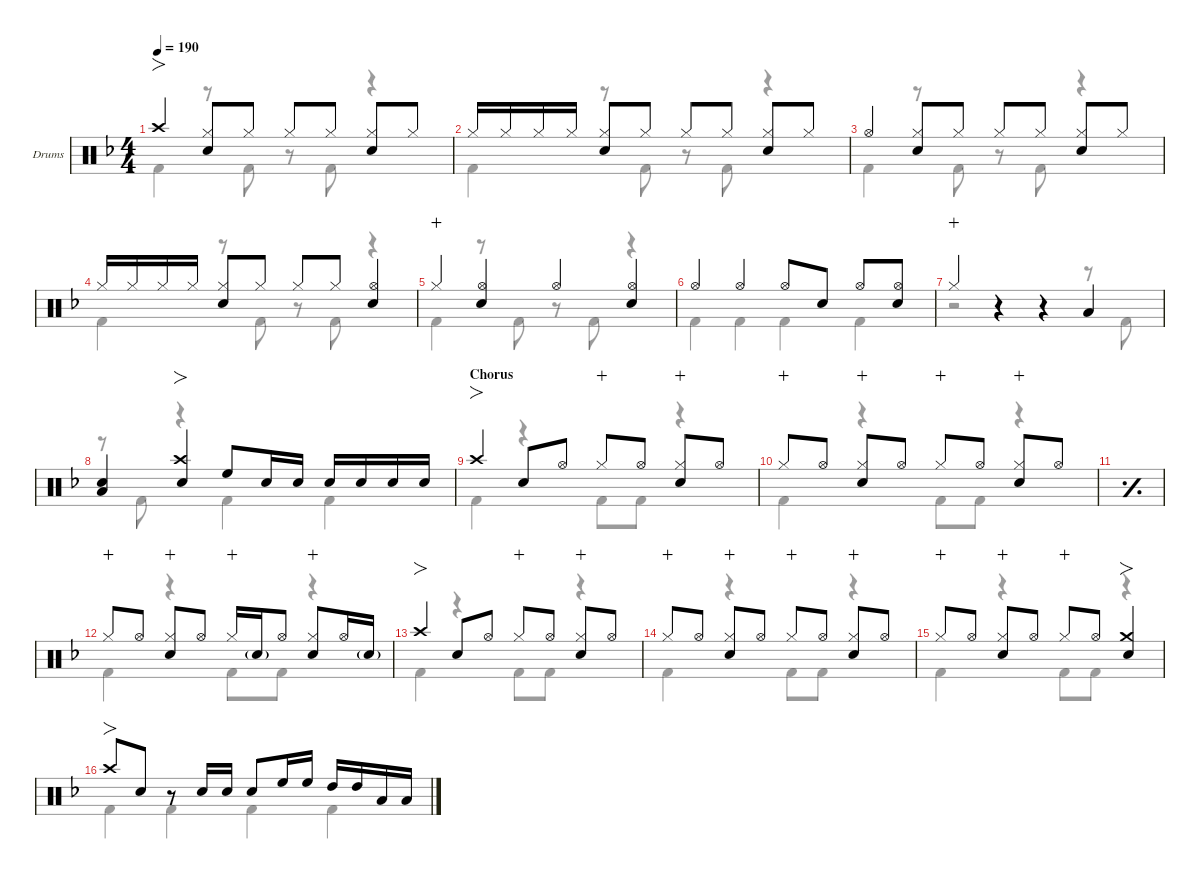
\defaultSystemsLayout 4
\hideDynamics
\bracketExtendMode nobrackets
\firstSystemTrackNameOrientation horizontal
\track ("Drums" "Drums") {defaultSystemsLayout 4 instrument percussion}
\staff {score}
\articulation defaults
\voice
\ts (4 4)
\tempo 190
\clef neutral
\ks f "Crash high (hit)"{acc forcenatural}.4{fo dy f}
("Hi-Hat (closed)"{acc forcenatural} "Snare (hit) 2"{acc forcenatural}).8 "Hi-Hat (closed)"{acc forcenatural}.8{dy mf} "Hi-Hat (closed)"{acc forcenatural}.8{dy f} "Hi-Hat (closed)"{acc forcenatural}.8{dy mf} ("Hi-Hat (closed)"{acc forcenatural} "Snare (hit) 2"{acc forcenatural}).8{dy f} "Hi-Hat (closed)"{acc forcenatural}.8{dy mf} |
"Hi-Hat (closed)"{acc forcenatural}.16{dy f} "Hi-Hat (closed)"{acc forcenatural}.16{dy mf} "Hi-Hat (closed)"{acc forcenatural}.16{dy f} "Hi-Hat (closed)"{acc forcenatural}.16{dy mf beam split} ("Hi-Hat (closed)"{acc forcenatural} "Snare (hit) 2"{acc forcenatural}).8{dy f} "Hi-Hat (closed)"{acc forcenatural}.8{dy mf} "Hi-Hat (closed)"{acc forcenatural}.8{dy f} "Hi-Hat (closed)"{acc forcenatural}.8{dy mf} ("Hi-Hat (closed)"{acc forcenatural} "Snare (hit) 2"{acc forcenatural}).8{dy f} "Hi-Hat (closed)"{acc forcenatural}.8{dy mf} |
"Hi-Hat (open)"{acc forcenatural}.4{dy f} ("Hi-Hat (closed)"{acc forcenatural} "Snare (hit) 2"{acc forcenatural}).8 "Hi-Hat (closed)"{acc forcenatural}.8{dy mf} "Hi-Hat (closed)"{acc forcenatural}.8{dy f} "Hi-Hat (closed)"{acc forcenatural}.8{dy mf} ("Hi-Hat (closed)"{acc forcenatural} "Snare (hit) 2"{acc forcenatural}).8{dy f} "Hi-Hat (closed)"{acc forcenatural}.8{dy mf} |
"Hi-Hat (closed)"{acc forcenatural}.16{dy f} "Hi-Hat (closed)"{acc forcenatural}.16{dy mf} "Hi-Hat (closed)"{acc forcenatural}.16{dy f} "Hi-Hat (closed)"{acc forcenatural}.16{dy mf beam split} ("Hi-Hat (closed)"{acc forcenatural} "Snare (hit) 2"{acc forcenatural}).8{dy f} "Hi-Hat (closed)"{acc forcenatural}.8{dy mf} "Hi-Hat (closed)"{acc forcenatural}.8{dy f} "Hi-Hat (closed)"{acc forcenatural}.8{dy mf} ("Hi-Hat (open)"{acc forcenatural} "Snare (hit) 2"{acc forcenatural}).4{dy f} |
"Hi-Hat (closed)"{acc forcenatural}.4{dy mp wahc} ("Hi-Hat (open)"{acc forcenatural} "Snare (hit) 2"{acc forcenatural}).4 "Hi-Hat (open)"{acc forcenatural}.4{dy mf} ("Hi-Hat (open)"{acc forcenatural} "Snare (hit) 2"{acc forcenatural}).4{dy f} |
"Hi-Hat (open)"{acc forcenatural}.4 "Hi-Hat (open)"{acc forcenatural}.4 "Hi-Hat (open)"{acc forcenatural}.8 "Snare (hit) 2"{acc forcenatural}.8 "Hi-Hat (open)"{acc forcenatural}.8 ("Hi-Hat (open)"{acc forcenatural} "Snare (hit) 2"{acc forcenatural}).8 |
"Hi-Hat (closed)"{acc forcenatural}.4{dy mp wahc} r.4 r.4 "Low Tom (hit)"{acc forcenatural}.4{dy mf} |
("Snare (hit) 2"{acc forcenatural} "Low Tom (hit)"{acc forcenatural}).4{dy f} ("Snare (hit) 2"{acc forcenatural} "Crash high (hit)"{acc forcenatural}).4{fo} "High Floor Tom (hit)"{acc forcenatural}.8 "Snare (hit) 2"{acc forcenatural}.16 "Snare (hit) 2"{acc forcenatural}.16{dy mf beam split} "Snare (hit) 2"{acc forcenatural}.16{dy f} "Snare (hit) 2"{acc forcenatural}.16{dy mf} "Snare (hit) 2"{acc forcenatural}.16{dy f} "Snare (hit) 2"{acc forcenatural}.16{dy mf} |
\section ("" "Chorus")
"Crash high (hit)"{acc forcenatural}.4{fo dy f} "Snare (hit) 2"{acc forcenatural}.8 "Hi-Hat (open)"{acc forcenatural}.8 "Hi-Hat (closed)"{acc forcenatural}.8{wahc} "Hi-Hat (open)"{acc forcenatural}.8 ("Hi-Hat (closed)"{acc forcenatural} "Snare (hit) 2"{acc forcenatural}).8{wahc} "Hi-Hat (open)"{acc forcenatural}.8 |
"Hi-Hat (closed)"{acc forcenatural}.8{wahc} "Hi-Hat (open)"{acc forcenatural}.8 ("Hi-Hat (closed)"{acc forcenatural} "Snare (hit) 2"{acc forcenatural}).8{wahc} "Hi-Hat (open)"{acc forcenatural}.8 "Hi-Hat (closed)"{acc forcenatural}.8{wahc} "Hi-Hat (open)"{acc forcenatural}.8 ("Hi-Hat (closed)"{acc forcenatural} "Snare (hit) 2"{acc forcenatural}).8{wahc} "Hi-Hat (open)"{acc forcenatural}.8 |
\simile simple
|
\simile none "Hi-Hat (closed)"{acc forcenatural}.8{wahc} "Hi-Hat (open)"{acc forcenatural}.8
("Hi-Hat (closed)"{acc forcenatural} "Snare (hit) 2"{acc forcenatural}).8{wahc} "Hi-Hat (open)"{acc forcenatural}.8 "Hi-Hat (closed)"{acc forcenatural}.16{wahc} "Snare (hit) 2"{g acc forcenatural}.16{dy mf} "Hi-Hat (open)"{acc forcenatural}.8{dy f beam split} ("Hi-Hat (closed)"{acc forcenatural} "Snare (hit) 2"{acc forcenatural}).8{wahc} "Hi-Hat (open)"{acc forcenatural}.16 "Snare (hit) 2"{g acc forcenatural}.16{dy mf} |
"Crash high (hit)"{acc forcenatural}.4{fo dy f} "Snare (hit) 2"{acc forcenatural}.8 "Hi-Hat (open)"{acc forcenatural}.8 "Hi-Hat (closed)"{acc forcenatural}.8{wahc} "Hi-Hat (open)"{acc forcenatural}.8 ("Hi-Hat (closed)"{acc forcenatural} "Snare (hit) 2"{acc forcenatural}).8{wahc} "Hi-Hat (open)"{acc forcenatural}.8 |
"Hi-Hat (closed)"{acc forcenatural}.8{wahc} "Hi-Hat (open)"{acc forcenatural}.8 ("Hi-Hat (closed)"{acc forcenatural} "Snare (hit) 2"{acc forcenatural}).8{wahc} "Hi-Hat (open)"{acc forcenatural}.8 "Hi-Hat (closed)"{acc forcenatural}.8{wahc} "Hi-Hat (open)"{acc forcenatural}.8{beam split} ("Hi-Hat (closed)"{acc forcenatural} "Snare (hit) 2"{acc forcenatural}).8{wahc} "Hi-Hat (open)"{acc forcenatural}.8 |
"Hi-Hat (closed)"{acc forcenatural}.8{wahc} "Hi-Hat (open)"{acc forcenatural}.8 ("Hi-Hat (closed)"{acc forcenatural} "Snare (hit) 2"{acc forcenatural}).8{wahc} "Hi-Hat (open)"{acc forcenatural}.8 "Hi-Hat (closed)"{acc forcenatural}.8{wahc} "Hi-Hat (open)"{acc forcenatural}.8 ("Crash medium (hit)"{acc forcenatural} "Snare (hit) 2"{acc forcenatural}).4{fo} |
"Crash high (hit)"{acc forcenatural}.8{fo} "Snare (hit) 2"{acc forcenatural}.8{beam split} r.8{beam split} "Snare (hit) 2"{acc forcenatural}.16 "Snare (hit) 2"{acc forcenatural}.16{dy mf} "Snare (hit) 2"{acc forcenatural}.8{dy f} "High Floor Tom (hit)"{acc forcenatural}.16 "High Floor Tom (hit)"{acc forcenatural}.16{beam split} "High Tom (hit)"{acc forcenatural}.16 "High Tom (hit)"{acc forcenatural}.16 "Low Tom (hit)"{acc forcenatural}.16 "Low Tom (hit)"{acc forcenatural}.16
\voice
\clef neutral
\ottava regular
\simile none
\ks f "Kick (hit) 2"{acc forcenatural}.4{dy f}
r.8 "Kick (hit) 2"{acc forcenatural}.8 r.8 "Kick (hit) 2"{acc forcenatural}.8 r.4 |
"Kick (hit) 2"{acc forcenatural}.4 r.8 "Kick (hit) 2"{acc forcenatural}.8 r.8 "Kick (hit) 2"{acc forcenatural}.8 r.4 |
"Kick (hit) 2"{acc forcenatural}.4 r.8 "Kick (hit) 2"{acc forcenatural}.8 r.8 "Kick (hit) 2"{acc forcenatural}.8 r.4 |
"Kick (hit) 2"{acc forcenatural}.4 r.8 "Kick (hit) 2"{acc forcenatural}.8 r.8 "Kick (hit) 2"{acc forcenatural}.8 r.4 |
"Kick (hit) 2"{acc forcenatural}.4 r.8 "Kick (hit) 2"{acc forcenatural}.8 r.8 "Kick (hit) 2"{acc forcenatural}.8 r.4 |
"Kick (hit) 2"{acc forcenatural}.4 "Kick (hit) 2"{acc forcenatural}.4 "Kick (hit) 2"{acc forcenatural}.4 "Kick (hit) 2"{acc forcenatural}.4 |
r.2 r.4 r.8 "Kick (hit) 2"{acc forcenatural}.8 |
r.8 "Kick (hit) 2"{acc forcenatural}.8 r.4 "Kick (hit) 2"{acc forcenatural}.4 "Kick (hit) 2"{acc forcenatural}.4 |
"Kick (hit) 2"{acc forcenatural}.4 r.4 "Kick (hit) 2"{acc forcenatural}.8 "Kick (hit) 2"{acc forcenatural}.8 r.4 |
"Kick (hit) 2"{acc forcenatural}.4 r.4 "Kick (hit) 2"{acc forcenatural}.8 "Kick (hit) 2"{acc forcenatural}.8 r.4 |
\simile simple
|
\simile none "Kick (hit) 2"{acc forcenatural}.4
r.4 "Kick (hit) 2"{acc forcenatural}.8 "Kick (hit) 2"{acc forcenatural}.8 r.4 |
"Kick (hit) 2"{acc forcenatural}.4 r.4 "Kick (hit) 2"{acc forcenatural}.8 "Kick (hit) 2"{acc forcenatural}.8 r.4 |
"Kick (hit) 2"{acc forcenatural}.4 r.4 "Kick (hit) 2"{acc forcenatural}.8 "Kick (hit) 2"{acc forcenatural}.8 r.4 |
"Kick (hit) 2"{acc forcenatural}.4 r.4 "Kick (hit) 2"{acc forcenatural}.8 "Kick (hit) 2"{acc forcenatural}.8 r.4 |
"Kick (hit) 2"{acc forcenatural}.4 "Kick (hit) 2"{acc forcenatural}.4 "Kick (hit) 2"{acc forcenatural}.4 "Kick (hit) 2"{acc forcenatural}.4
